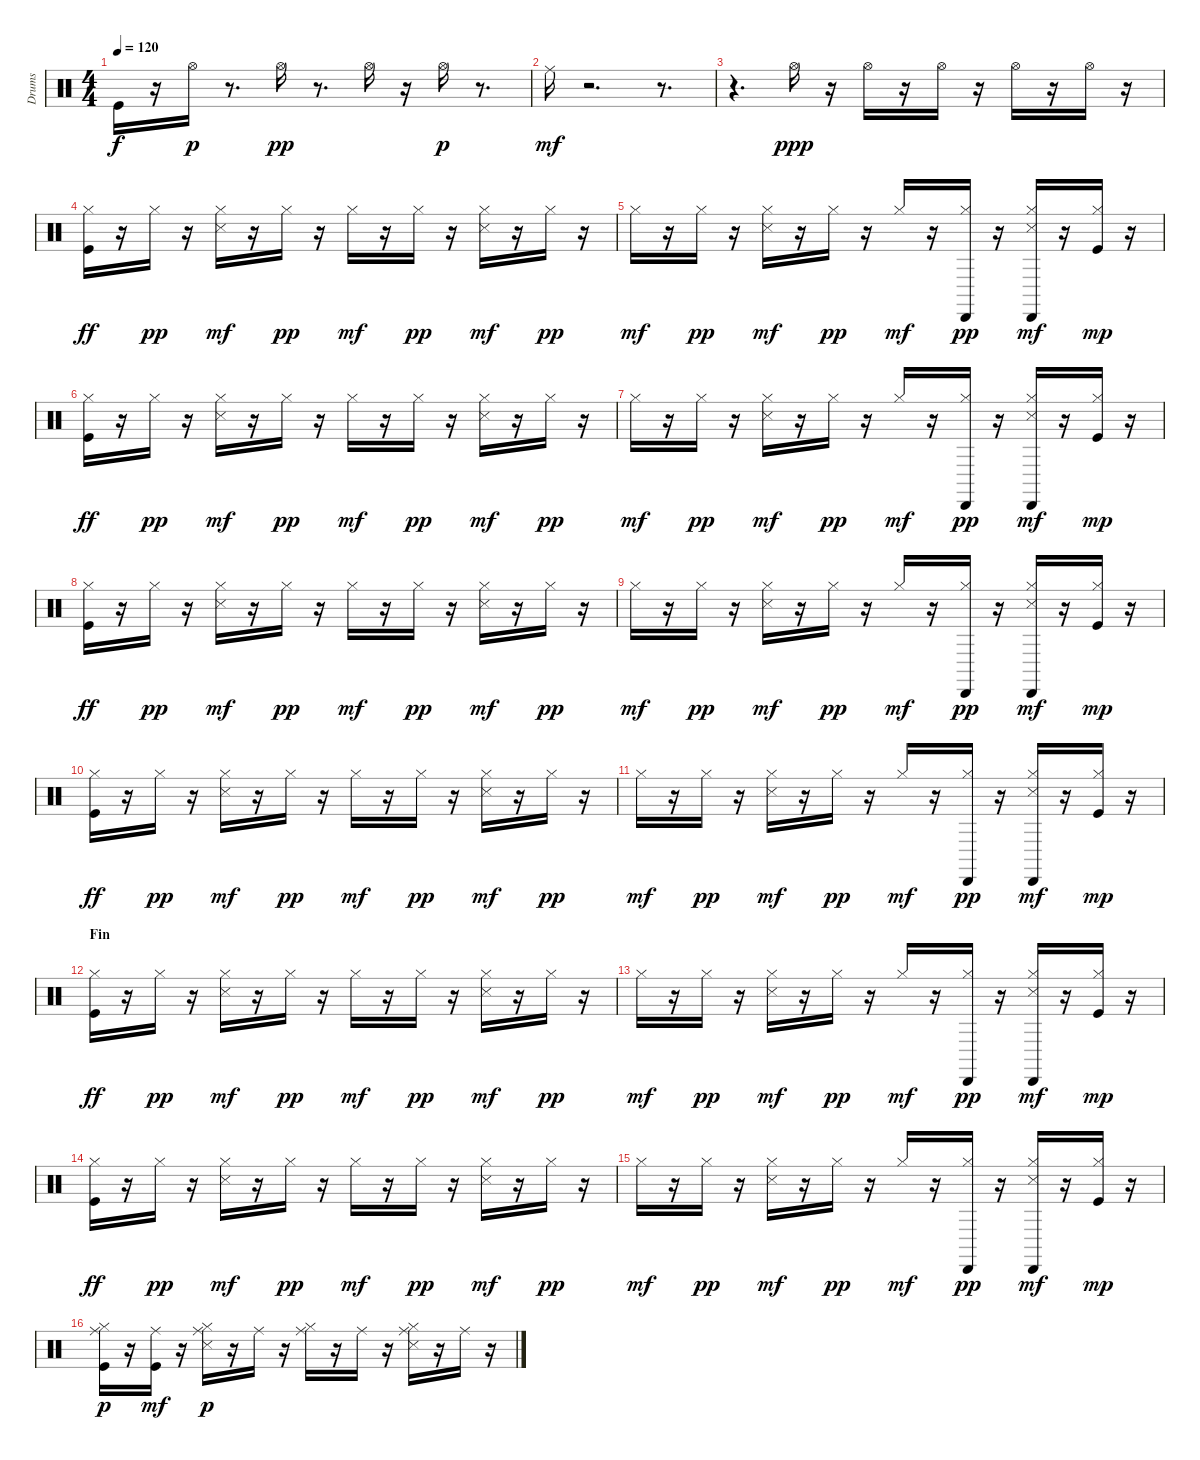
\track ("Drums" "Drums") {instrument percussion}
\staff {score}
\articulation defaults
\ts (4 4)
\tempo 120
\clef neutral
\ks c "Kick (hit)".16{dy f}
r.16 "Hi-Hat (open)".16{dy p} r.8{d} "Hi-Hat (open)".16{dy pp} r.8{d} "Hi-Hat (open)".16 r.16 "Hi-Hat (open)".16{dy p} r.8{d} |
"Ride (middle)".16{dy mf} r.2{d} r.8{d} |
r.4{d} "Hi-Hat (open)".16{dy ppp} r.16 "Hi-Hat (open)".16 r.16 "Hi-Hat (open)".16 r.16 "Hi-Hat (open)".16 r.16 "Hi-Hat (open)".16 r.16 |
("Hi-Hat (closed)" "Kick (hit)").16{dy ff} r.16 "Hi-Hat (closed)".16{dy pp} r.16 ("Snare (side stick) 3" "Hi-Hat (closed)").16{dy mf} r.16 "Hi-Hat (closed)".16{dy pp} r.16 "Hi-Hat (closed)".16{dy mf} r.16 "Hi-Hat (closed)".16{dy pp} r.16 ("Snare (side stick) 3" "Hi-Hat (closed)").16{dy mf} r.16 "Hi-Hat (closed)".16{dy pp} r.16 |
"Hi-Hat (closed)".16{dy mf} r.16 "Hi-Hat (closed)".16{dy pp} r.16 ("Snare (side stick) 3" "Hi-Hat (closed)").16{dy mf} r.16 "Hi-Hat (closed)".16{dy pp} r.16 "Hi-Hat (closed)".16{dy mf} r.16 ("Cabasa (hit)" "Hi-Hat (closed)").16{dy pp} r.16 ("Cabasa (hit)" "Snare (side stick) 3" "Hi-Hat (closed)").16{dy mf} r.16 ("Hi-Hat (closed)" "Kick (hit)").16{dy mp} r.16 |
("Hi-Hat (closed)" "Kick (hit)").16{dy ff} r.16 "Hi-Hat (closed)".16{dy pp} r.16 ("Snare (side stick) 3" "Hi-Hat (closed)").16{dy mf} r.16 "Hi-Hat (closed)".16{dy pp} r.16 "Hi-Hat (closed)".16{dy mf} r.16 "Hi-Hat (closed)".16{dy pp} r.16 ("Snare (side stick) 3" "Hi-Hat (closed)").16{dy mf} r.16 "Hi-Hat (closed)".16{dy pp} r.16 |
"Hi-Hat (closed)".16{dy mf} r.16 "Hi-Hat (closed)".16{dy pp} r.16 ("Snare (side stick) 3" "Hi-Hat (closed)").16{dy mf} r.16 "Hi-Hat (closed)".16{dy pp} r.16 "Hi-Hat (closed)".16{dy mf} r.16 ("Cabasa (hit)" "Hi-Hat (closed)").16{dy pp} r.16 ("Cabasa (hit)" "Snare (side stick) 3" "Hi-Hat (closed)").16{dy mf} r.16 ("Hi-Hat (closed)" "Kick (hit)").16{dy mp} r.16 |
("Hi-Hat (closed)" "Kick (hit)").16{dy ff} r.16 "Hi-Hat (closed)".16{dy pp} r.16 ("Snare (side stick) 3" "Hi-Hat (closed)").16{dy mf} r.16 "Hi-Hat (closed)".16{dy pp} r.16 "Hi-Hat (closed)".16{dy mf} r.16 "Hi-Hat (closed)".16{dy pp} r.16 ("Snare (side stick) 3" "Hi-Hat (closed)").16{dy mf} r.16 "Hi-Hat (closed)".16{dy pp} r.16 |
"Hi-Hat (closed)".16{dy mf} r.16 "Hi-Hat (closed)".16{dy pp} r.16 ("Snare (side stick) 3" "Hi-Hat (closed)").16{dy mf} r.16 "Hi-Hat (closed)".16{dy pp} r.16 "Hi-Hat (closed)".16{dy mf} r.16 ("Cabasa (hit)" "Hi-Hat (closed)").16{dy pp} r.16 ("Cabasa (hit)" "Snare (side stick) 3" "Hi-Hat (closed)").16{dy mf} r.16 ("Hi-Hat (closed)" "Kick (hit)").16{dy mp} r.16 |
("Hi-Hat (closed)" "Kick (hit)").16{dy ff} r.16 "Hi-Hat (closed)".16{dy pp} r.16 ("Snare (side stick) 3" "Hi-Hat (closed)").16{dy mf} r.16 "Hi-Hat (closed)".16{dy pp} r.16 "Hi-Hat (closed)".16{dy mf} r.16 "Hi-Hat (closed)".16{dy pp} r.16 ("Snare (side stick) 3" "Hi-Hat (closed)").16{dy mf} r.16 "Hi-Hat (closed)".16{dy pp} r.16 |
"Hi-Hat (closed)".16{dy mf} r.16 "Hi-Hat (closed)".16{dy pp} r.16 ("Snare (side stick) 3" "Hi-Hat (closed)").16{dy mf} r.16 "Hi-Hat (closed)".16{dy pp} r.16 "Hi-Hat (closed)".16{dy mf} r.16 ("Cabasa (hit)" "Hi-Hat (closed)").16{dy pp} r.16 ("Cabasa (hit)" "Snare (side stick) 3" "Hi-Hat (closed)").16{dy mf} r.16 ("Hi-Hat (closed)" "Kick (hit)").16{dy mp} r.16 |
\section ("" "Fin")
("Hi-Hat (closed)" "Kick (hit)").16{dy ff} r.16 "Hi-Hat (closed)".16{dy pp} r.16 ("Snare (side stick) 3" "Hi-Hat (closed)").16{dy mf} r.16 "Hi-Hat (closed)".16{dy pp} r.16 "Hi-Hat (closed)".16{dy mf} r.16 "Hi-Hat (closed)".16{dy pp} r.16 ("Snare (side stick) 3" "Hi-Hat (closed)").16{dy mf} r.16 "Hi-Hat (closed)".16{dy pp} r.16 |
"Hi-Hat (closed)".16{dy mf} r.16 "Hi-Hat (closed)".16{dy pp} r.16 ("Snare (side stick) 3" "Hi-Hat (closed)").16{dy mf} r.16 "Hi-Hat (closed)".16{dy pp} r.16 "Hi-Hat (closed)".16{dy mf} r.16 ("Cabasa (hit)" "Hi-Hat (closed)").16{dy pp} r.16 ("Cabasa (hit)" "Snare (side stick) 3" "Hi-Hat (closed)").16{dy mf} r.16 ("Hi-Hat (closed)" "Kick (hit)").16{dy mp} r.16 |
("Hi-Hat (closed)" "Kick (hit)").16{dy ff} r.16 "Hi-Hat (closed)".16{dy pp} r.16 ("Snare (side stick) 3" "Hi-Hat (closed)").16{dy mf} r.16 "Hi-Hat (closed)".16{dy pp} r.16 "Hi-Hat (closed)".16{dy mf} r.16 "Hi-Hat (closed)".16{dy pp} r.16 ("Snare (side stick) 3" "Hi-Hat (closed)").16{dy mf} r.16 "Hi-Hat (closed)".16{dy pp} r.16 |
"Hi-Hat (closed)".16{dy mf} r.16 "Hi-Hat (closed)".16{dy pp} r.16 ("Snare (side stick) 3" "Hi-Hat (closed)").16{dy mf} r.16 "Hi-Hat (closed)".16{dy pp} r.16 "Hi-Hat (closed)".16{dy mf} r.16 ("Cabasa (hit)" "Hi-Hat (closed)").16{dy pp} r.16 ("Cabasa (hit)" "Snare (side stick) 3" "Hi-Hat (closed)").16{dy mf} r.16 ("Hi-Hat (closed)" "Kick (hit)").16{dy mp} r.16 |
("Ride (middle)" "Hi-Hat (closed)" "Kick (hit)").16{dy p} r.16 ("Ride (middle)" "Kick (hit)").16{dy mf} r.16 ("Snare (side stick) 3" "Ride (middle)" "Hi-Hat (closed)").16{dy p} r.16 "Ride (middle)".16 r.16 ("Ride (middle)" "Hi-Hat (closed)").16 r.16 "Ride (middle)".16 r.16 ("Snare (side stick) 3" "Ride (middle)" "Hi-Hat (closed)").16 r.16 "Ride (middle)".16 r.16
